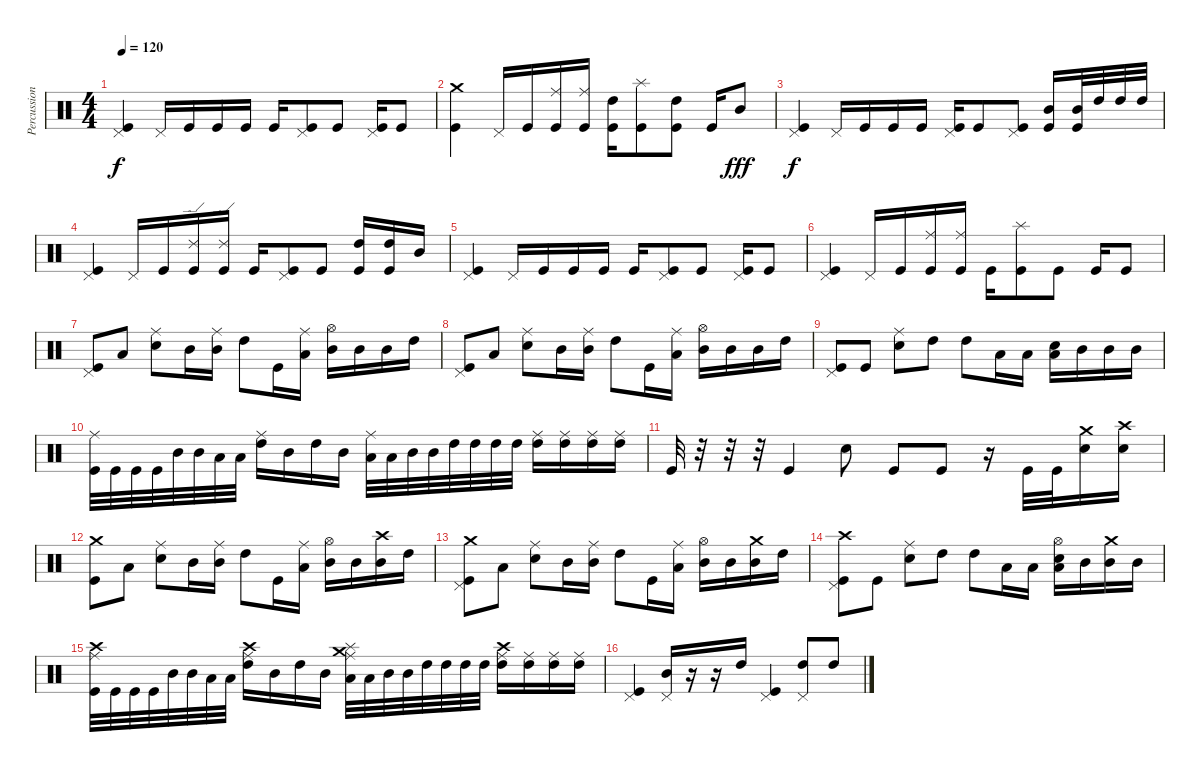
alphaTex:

\track ("Percussions" "Percussion") {instrument percussion}
\staff {score}
\articulation defaults
\ts (4 4)
\tempo 120
\clef neutral
\ks c
("Pedal Hi-Hat (hit)" "Kick (hit)").4{dy f} "Pedal Hi-Hat (hit)".16 "Kick (hit)".16 "Kick (hit)".16 "Kick (hit)".16 "Kick (hit)".16 ("Pedal Hi-Hat (hit)" "Kick (hit)").8 "Kick (hit)".8 ("Pedal Hi-Hat (hit)" "Kick (hit)").16 "Kick (hit)".8 |
("Crash medium (hit)" "Kick (hit)").4 "Pedal Hi-Hat (hit)".16 "Kick (hit)".16 ("Ride (middle)" "Kick (hit)").16 ("Ride (middle)" "Kick (hit)").16 ("High Tom (hit)" "Kick (hit)").16 ("Splash (hit)" "Kick (hit)").8 ("High Tom (hit)" "Kick (hit)").8 "Kick (hit)".16 "Mid Tom (hit)".8{dy fff} |
("Pedal Hi-Hat (hit)" "Kick (hit)").4{dy f} "Pedal Hi-Hat (hit)".16 "Kick (hit)".16 "Kick (hit)".16 "Kick (hit)".16 ("Pedal Hi-Hat (hit)" "Kick (hit)").16 "Kick (hit)".8 ("Pedal Hi-Hat (hit)" "Kick (hit)").8 ("Mid Tom (hit)" "Kick (hit)").16 ("Mid Tom (hit)" "Kick (hit)").32 "High Tom (hit)".32 "High Tom (hit)".32 "High Tom (hit)".32 |
("Pedal Hi-Hat (hit)" "Kick (hit)").4 "Pedal Hi-Hat (hit)".16 "Kick (hit)".16 ("Ride (edge) 2" "Kick (hit)").16 ("Ride (edge) 2" "Kick (hit)").16 "Kick (hit)".16 ("Pedal Hi-Hat (hit)" "Kick (hit)").8 "Kick (hit)".8 ("High Tom (hit)" "Kick (hit)").16 ("High Tom (hit)" "Kick (hit)").16 "Mid Tom (hit)".16 |
("Pedal Hi-Hat (hit)" "Kick (hit)").4 "Pedal Hi-Hat (hit)".16 "Kick (hit)".16 "Kick (hit)".16 "Kick (hit)".16 "Kick (hit)".16 ("Pedal Hi-Hat (hit)" "Kick (hit)").8 "Kick (hit)".8 ("Pedal Hi-Hat (hit)" "Kick (hit)").16 "Kick (hit)".8 |
("Pedal Hi-Hat (hit)" "Kick (hit)").4 "Pedal Hi-Hat (hit)".16 "Kick (hit)".16 ("Ride (middle)" "Kick (hit)").16 ("Ride (middle)" "Kick (hit)").16 "Kick (hit)".16 ("Splash (hit)" "Kick (hit)").8 "Kick (hit)".8 "Kick (hit)".16 "Kick (hit)".8 |
("Pedal Hi-Hat (hit)" "Kick (hit)").8 "Low Tom (hit)".8 ("Ride (middle)" "Snare (hit) 2").8 "Mid Tom (hit)".16 ("Ride (middle)" "Mid Tom (hit)").16 "High Tom (hit)".8 "Kick (hit)".16 ("Ride (middle)" "Low Tom (hit)").16 ("Hi-Hat (open)" "Mid Tom (hit)").16 "Mid Tom (hit)".16 "Mid Tom (hit)".16 "High Tom (hit)".16 |
("Pedal Hi-Hat (hit)" "Kick (hit)").8 "Low Tom (hit)".8 ("Ride (middle)" "Snare (hit) 2").8 "Mid Tom (hit)".16 ("Ride (middle)" "Mid Tom (hit)").16 "High Tom (hit)".8 "Kick (hit)".16 ("Ride (middle)" "Low Tom (hit)").16 ("Hi-Hat (open)" "Mid Tom (hit)").16 "Mid Tom (hit)".16 "Mid Tom (hit)".16 "High Tom (hit)".16 |
("Pedal Hi-Hat (hit)" "Kick (hit)").8 "Kick (hit)".8 ("Ride (middle)" "Snare (hit) 2").8 "High Tom (hit)".8 "High Tom (hit)".8 "Low Tom (hit)".16 "Low Tom (hit)".16 ("Low Tom (hit)" "Snare (hit) 2").16 "Mid Tom (hit)".16 "Mid Tom (hit)".16 "Mid Tom (hit)".16 |
("Ride (middle)" "Kick (hit)").32 "Kick (hit)".32 "Kick (hit)".32 "Kick (hit)".32 "Mid Tom (hit)".32 "Mid Tom (hit)".32 "Low Tom (hit)".32 "Low Tom (hit)".32 ("Ride (middle)" "High Tom (hit)").16 "Mid Tom (hit)".16 "High Tom (hit)".16 "Mid Tom (hit)".16 ("Ride (middle)" "Low Tom (hit)").32 "Low Tom (hit)".32 "Mid Tom (hit)".32 "Mid Tom (hit)".32 "High Tom (hit)".32 "High Tom (hit)".32 "High Tom (hit)".32 "High Tom (hit)".32 ("Ride (middle)" "High Tom (hit)").16 ("Ride (middle)" "High Tom (hit)").16 ("Ride (middle)" "High Tom (hit)").16 ("Ride (middle)" "High Tom (hit)").16 |
"Kick (hit)".32 r.32 r.32 r.32 "Kick (hit)".4 "Snare (hit) 2".8 "Kick (hit)".8 "Kick (hit)".8 r.16 "Kick (hit)".32 "Kick (hit)".32 ("Crash medium (hit)" "Snare (hit) 2").16 ("Crash high (hit)" "Snare (hit) 2").16 |
("Crash medium (hit)" "Kick (hit)").8 "Low Tom (hit)".8 ("Ride (middle)" "Snare (hit) 2").8 "Mid Tom (hit)".16 ("Ride (middle)" "Mid Tom (hit)").16 "High Tom (hit)".8 "Kick (hit)".16 ("Ride (middle)" "Low Tom (hit)").16 ("Hi-Hat (open)" "Mid Tom (hit)").16 "Mid Tom (hit)".16 ("Crash high (hit)" "Mid Tom (hit)").16 "High Tom (hit)".16 |
("Pedal Hi-Hat (hit)" "Crash medium (hit)" "Kick (hit)").8 "Low Tom (hit)".8 ("Ride (middle)" "Snare (hit) 2").8 "Mid Tom (hit)".16 ("Ride (middle)" "Mid Tom (hit)").16 "High Tom (hit)".8 "Kick (hit)".16 ("Ride (middle)" "Low Tom (hit)").16 ("Hi-Hat (open)" "Mid Tom (hit)").16 "Mid Tom (hit)".16 ("Crash medium (hit)" "Mid Tom (hit)").16 "High Tom (hit)".16 |
("Pedal Hi-Hat (hit)" "Crash high (hit)" "Kick (hit)").8 "Kick (hit)".8 ("Ride (middle)" "Snare (hit) 2").8 "High Tom (hit)".8 "High Tom (hit)".8 "Low Tom (hit)".16 "Low Tom (hit)".16 ("Hi-Hat (open)" "Low Tom (hit)" "Snare (hit) 2").16 "Mid Tom (hit)".16 ("Crash medium (hit)" "Mid Tom (hit)").16 "Mid Tom (hit)".16 |
("Ride (middle)" "Crash high (hit)" "Kick (hit)").32 "Kick (hit)".32 "Kick (hit)".32 "Kick (hit)".32 "Mid Tom (hit)".32 "Mid Tom (hit)".32 "Low Tom (hit)".32 "Low Tom (hit)".32 ("Ride (middle)" "Crash high (hit)" "High Tom (hit)").16 "Mid Tom (hit)".16 "High Tom (hit)".16 "Mid Tom (hit)".16 ("Ride (middle)" "Splash (hit)" "Low Tom (hit)" "Crash medium (hit)").32 "Low Tom (hit)".32 "Mid Tom (hit)".32 "Mid Tom (hit)".32 "High Tom (hit)".32 "High Tom (hit)".32 "High Tom (hit)".32 "High Tom (hit)".32 ("Ride (middle)" "High Tom (hit)" "Crash high (hit)").16 ("Ride (middle)" "High Tom (hit)").16 ("Ride (middle)" "High Tom (hit)").16 ("Ride (middle)" "High Tom (hit)").16 |
("Pedal Hi-Hat (hit)" "Kick (hit)").4 ("Pedal Hi-Hat (hit)" "Mid Tom (hit)").16 r.16 r.16 "High Tom (hit)".16 ("Pedal Hi-Hat (hit)" "Kick (hit)").4 ("Pedal Hi-Hat (hit)" "High Tom (hit)").8 "High Tom (hit)".8
